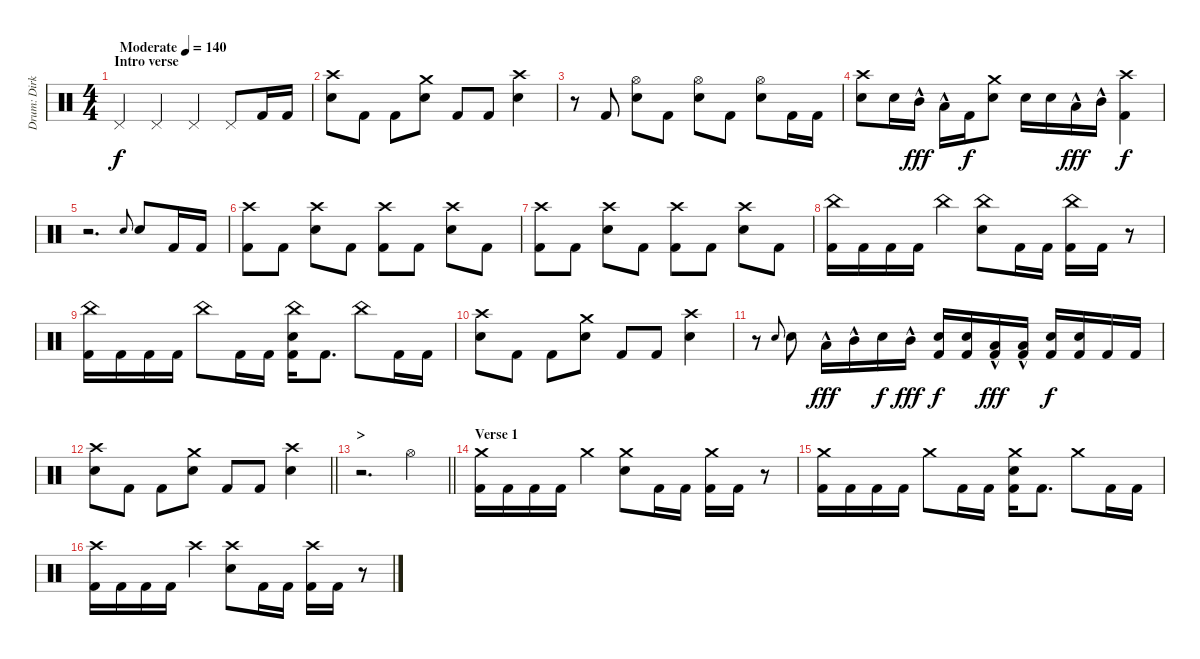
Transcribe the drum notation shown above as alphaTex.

\track ("Drum: Dirk" "Drum: Dirk") {instrument percussion}
\staff {score}
\articulation defaults
\ts (4 4)
\section ("" "Intro verse")
\tempo (140 "Moderate")
\clef neutral
\ks c "Pedal Hi-Hat (hit)".4{dy f} "Pedal Hi-Hat (hit)".4 "Pedal Hi-Hat (hit)".4 "Pedal Hi-Hat (hit)".8 "Kick (hit) 2".16 "Kick (hit) 2".16
|
("Crash high (hit)" "Electric Snare (hit)").8 "Kick (hit) 2".8 "Kick (hit) 2".8 ("Crash medium (hit)" "Electric Snare (hit)").8 "Kick (hit) 2".8 "Kick (hit) 2".8 ("Crash high (hit)" "Electric Snare (hit)").4 |
r.8 "Kick (hit) 2".8 ("Hi-Hat (open)" "Electric Snare (hit)").8 "Kick (hit) 2".8 ("Hi-Hat (open)" "Electric Snare (hit)").8 "Kick (hit) 2".8 ("Hi-Hat (open)" "Electric Snare (hit)").8 "Kick (hit) 2".16 "Kick (hit) 2".16 |
("Crash high (hit)" "Electric Snare (hit)").8 "Electric Snare (hit)".16 "Mid Tom (hit)"{hac}.16{dy fff} "Low Tom (hit)"{hac}.16 "Kick (hit) 2".16{dy f} ("Crash medium (hit)" "Electric Snare (hit)").8 "Electric Snare (hit)".16 "Electric Snare (hit)".16 "Low Tom (hit)"{hac}.16{dy fff} "Mid Tom (hit)"{hac}.16 ("Crash high (hit)" "Kick (hit) 2").4{dy f} |
r.2{d} "Electric Snare (hit)".8{gr onbeat} "Electric Snare (hit)".8 "Kick (hit) 2".16 "Kick (hit) 2".16 |
("Crash high (hit)" "Kick (hit) 2").8 "Kick (hit) 2".8 ("Crash high (hit)" "Electric Snare (hit)").8 "Kick (hit) 2".8 ("Crash high (hit)" "Kick (hit) 2").8 "Kick (hit) 2".8 ("Crash high (hit)" "Electric Snare (hit)").8 "Kick (hit) 2".8 |
("Crash high (hit)" "Kick (hit) 2").8 "Kick (hit) 2".8 ("Crash high (hit)" "Electric Snare (hit)").8 "Kick (hit) 2".8 ("Crash high (hit)" "Kick (hit) 2").8 "Kick (hit) 2".8 ("Crash high (hit)" "Electric Snare (hit)").8 "Kick (hit) 2".8 |
("China (hit)" "Kick (hit) 2").16 "Kick (hit) 2".16 "Kick (hit) 2".16 "Kick (hit) 2".16 "China (hit)".4 ("China (hit)" "Electric Snare (hit)").8 "Kick (hit) 2".16 "Kick (hit) 2".16 ("China (hit)" "Kick (hit) 2").16 "Kick (hit) 2".16 r.8 |
("China (hit)" "Kick (hit) 2").16 "Kick (hit) 2".16 "Kick (hit) 2".16 "Kick (hit) 2".16 "China (hit)".8 "Kick (hit) 2".16 "Kick (hit) 2".16 ("China (hit)" "Electric Snare (hit)" "Kick (hit) 2").16 "Kick (hit) 2".8{d} "China (hit)".8 "Kick (hit) 2".16 "Kick (hit) 2".16 |
("Crash high (hit)" "Electric Snare (hit)").8 "Kick (hit) 2".8 "Kick (hit) 2".8 ("Crash medium (hit)" "Electric Snare (hit)").8 "Kick (hit) 2".8 "Kick (hit) 2".8 ("Crash high (hit)" "Electric Snare (hit)").4 |
r.8 "Electric Snare (hit)".8{gr onbeat} "Electric Snare (hit)".8 "Low Tom (hit)"{hac}.16{dy fff} "Mid Tom (hit)"{hac}.16 "Electric Snare (hit)".16{dy f} "Mid Tom (hit)"{hac}.16{dy fff} ("Electric Snare (hit)" "Kick (hit) 2").16{dy f} ("Electric Snare (hit)" "Kick (hit) 2").16 ("Low Tom (hit)"{hac} "Kick (hit) 2").16{dy fff} ("Low Tom (hit)"{hac} "Kick (hit) 2").16 ("Electric Snare (hit)" "Kick (hit) 2").16{dy f} ("Electric Snare (hit)" "Kick (hit) 2").16 "Kick (hit) 2".16 "Kick (hit) 2".16 |
\barLineRight lightlight
("Crash high (hit)" "Electric Snare (hit)").8 "Kick (hit) 2".8 "Kick (hit) 2".8 ("Crash medium (hit)" "Electric Snare (hit)").8 "Kick (hit) 2".8 "Kick (hit) 2".8 ("Crash high (hit)" "Electric Snare (hit)").4 |
\section ("" ">")
\barLineRight lightlight
r.2{d} "Hi-Hat (open)".4 |
\section ("" "Verse 1")
("Crash medium (hit)" "Kick (hit) 2").16 "Kick (hit) 2".16 "Kick (hit) 2".16 "Kick (hit) 2".16 "Crash medium (hit)".4 ("Crash medium (hit)" "Electric Snare (hit)").8 "Kick (hit) 2".16 "Kick (hit) 2".16 ("Crash medium (hit)" "Kick (hit) 2").16 "Kick (hit) 2".16 r.8 |
("Crash medium (hit)" "Kick (hit) 2").16 "Kick (hit) 2".16 "Kick (hit) 2".16 "Kick (hit) 2".16 "Crash medium (hit)".8 "Kick (hit) 2".16 "Kick (hit) 2".16 ("Crash medium (hit)" "Electric Snare (hit)" "Kick (hit) 2").16 "Kick (hit) 2".8{d} "Crash medium (hit)".8 "Kick (hit) 2".16 "Kick (hit) 2".16 |
("Crash high (hit)" "Kick (hit) 2").16 "Kick (hit) 2".16 "Kick (hit) 2".16 "Kick (hit) 2".16 "Crash high (hit)".4 ("Crash high (hit)" "Electric Snare (hit)").8 "Kick (hit) 2".16 "Kick (hit) 2".16 ("Crash high (hit)" "Kick (hit) 2").16 "Kick (hit) 2".16 r.8
